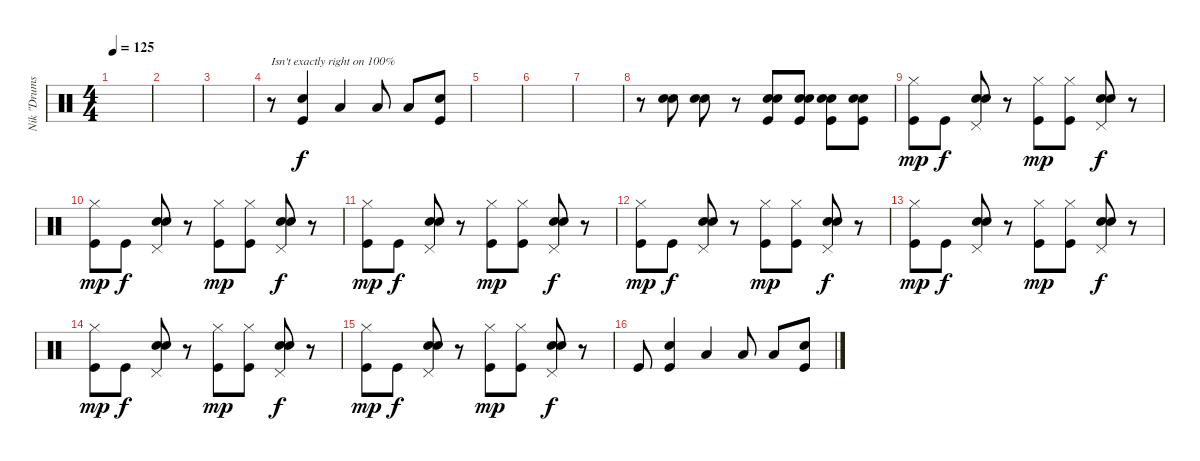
\track ("Nik \"Drums\"" "Nik \"Drums") {instrument percussion}
\staff {score}
\articulation defaults
\ts (4 4)
\tempo 125
\clef neutral
\ks c
|
|
|
r.8{txt "Isn't exactly right on 100%" balance 12} ("Snare (hit) 2" "Kick (hit)").4 "Low Floor Tom (hit)".4 "Low Floor Tom (hit)".8 "Low Floor Tom (hit)".8 ("Snare (hit) 2" "Kick (hit)").8 |
|
|
|
r.8{balance 8} ("Snare (hit) 2" "Electric Snare (hit)").8 ("Snare (hit) 2" "Electric Snare (hit)").8 r.8 ("Kick (hit)" "Electric Snare (hit)" "Electric Snare (hit)").8 ("Kick (hit)" "Electric Snare (hit)" "Electric Snare (hit)").8 ("Kick (hit)" "Electric Snare (hit)" "Snare (hit) 2").8 ("Kick (hit)" "Electric Snare (hit)" "Snare (hit) 2").8 |
("Hi-Hat (closed)" "Kick (hit)").8{dy mp} "Kick (hit)".8{dy f} ("Pedal Hi-Hat (hit)" "Electric Snare (hit)" "Snare (hit) 2").8 r.8 ("Hi-Hat (closed)" "Kick (hit)").8{dy mp} ("Hi-Hat (closed)" "Kick (hit)").8 ("Pedal Hi-Hat (hit)" "Electric Snare (hit)" "Snare (hit) 2").8{dy f} r.8 |
("Hi-Hat (closed)" "Kick (hit)").8{dy mp} "Kick (hit)".8{dy f} ("Pedal Hi-Hat (hit)" "Electric Snare (hit)" "Snare (hit) 2").8 r.8 ("Hi-Hat (closed)" "Kick (hit)").8{dy mp} ("Hi-Hat (closed)" "Kick (hit)").8 ("Pedal Hi-Hat (hit)" "Electric Snare (hit)" "Snare (hit) 2").8{dy f} r.8 |
("Hi-Hat (closed)" "Kick (hit)").8{dy mp} "Kick (hit)".8{dy f} ("Pedal Hi-Hat (hit)" "Electric Snare (hit)" "Snare (hit) 2").8 r.8 ("Hi-Hat (closed)" "Kick (hit)").8{dy mp} ("Hi-Hat (closed)" "Kick (hit)").8 ("Pedal Hi-Hat (hit)" "Electric Snare (hit)" "Snare (hit) 2").8{dy f} r.8 |
("Hi-Hat (closed)" "Kick (hit)").8{dy mp} "Kick (hit)".8{dy f} ("Pedal Hi-Hat (hit)" "Electric Snare (hit)" "Snare (hit) 2").8 r.8 ("Hi-Hat (closed)" "Kick (hit)").8{dy mp} ("Hi-Hat (closed)" "Kick (hit)").8 ("Pedal Hi-Hat (hit)" "Electric Snare (hit)" "Snare (hit) 2").8{dy f} r.8 |
("Hi-Hat (closed)" "Kick (hit)").8{dy mp} "Kick (hit)".8{dy f} ("Pedal Hi-Hat (hit)" "Electric Snare (hit)" "Snare (hit) 2").8 r.8 ("Hi-Hat (closed)" "Kick (hit)").8{dy mp} ("Hi-Hat (closed)" "Kick (hit)").8 ("Pedal Hi-Hat (hit)" "Electric Snare (hit)" "Snare (hit) 2").8{dy f} r.8 |
("Hi-Hat (closed)" "Kick (hit)").8{dy mp} "Kick (hit)".8{dy f} ("Pedal Hi-Hat (hit)" "Electric Snare (hit)" "Snare (hit) 2").8 r.8 ("Hi-Hat (closed)" "Kick (hit)").8{dy mp} ("Hi-Hat (closed)" "Kick (hit)").8 ("Pedal Hi-Hat (hit)" "Electric Snare (hit)" "Snare (hit) 2").8{dy f} r.8 |
("Hi-Hat (closed)" "Kick (hit)").8{dy mp} "Kick (hit)".8{dy f} ("Pedal Hi-Hat (hit)" "Electric Snare (hit)" "Snare (hit) 2").8 r.8 ("Hi-Hat (closed)" "Kick (hit)").8{dy mp} ("Hi-Hat (closed)" "Kick (hit)").8 ("Pedal Hi-Hat (hit)" "Electric Snare (hit)" "Snare (hit) 2").8{dy f} r.8 |
"Kick (hit)".8 ("Snare (hit) 2" "Kick (hit)").4 "Low Floor Tom (hit)".4 "Low Floor Tom (hit)".8 "Low Floor Tom (hit)".8 ("Snare (hit) 2" "Kick (hit)").8
